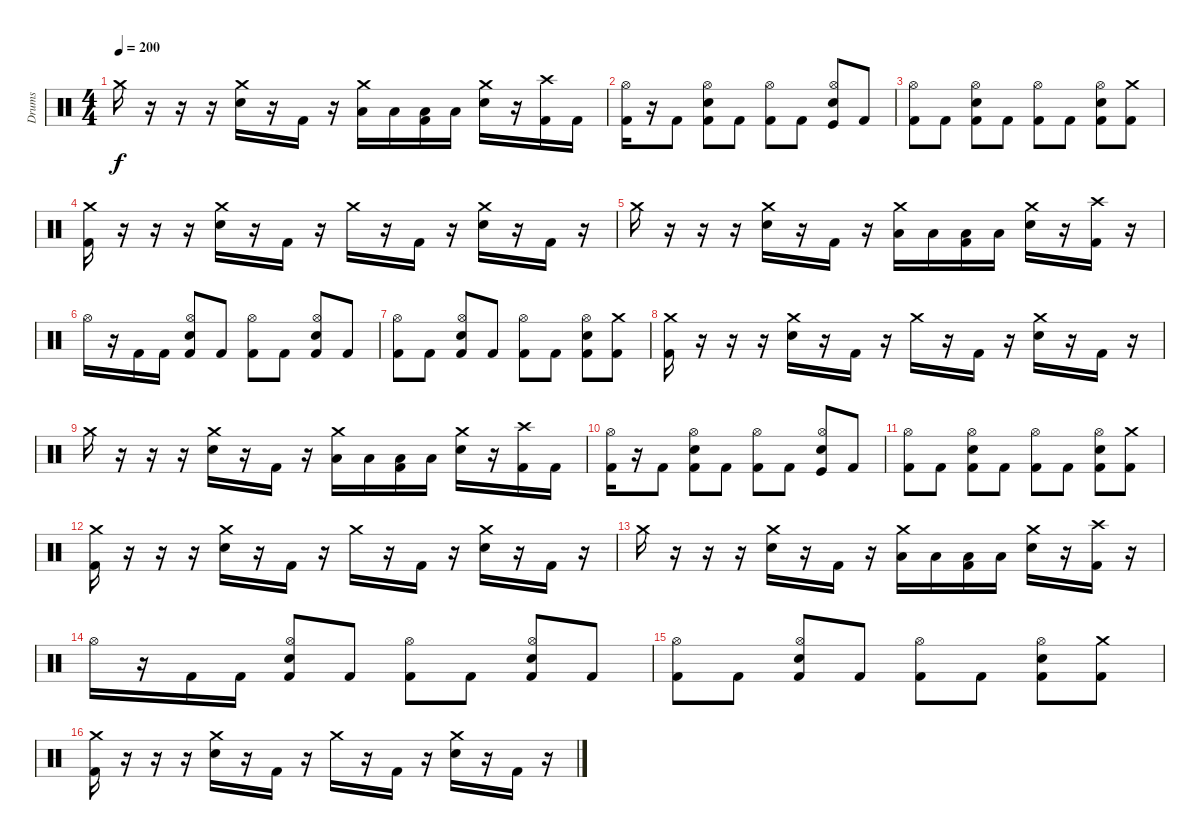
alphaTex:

\track ("Drums" "Drums") {instrument percussion}
\staff {score}
\articulation defaults
\ts (4 4)
\tempo 200
\clef neutral
\ks c "Crash medium (hit)".16{dy f}
r.16 r.16 r.16 ("Crash medium (hit)" "Snare (hit) 2").16 r.16 "Kick (hit) 2".16 r.16 ("Crash medium (hit)" "Low Floor Tom (hit)").16 "Low Floor Tom (hit)".16 ("Low Floor Tom (hit)" "Kick (hit) 2").16 "Low Floor Tom (hit)".16 ("Crash medium (hit)" "Snare (hit) 2").16 r.16 ("Crash high (hit)" "Kick (hit) 2").16 "Kick (hit) 2".16 |
("Hi-Hat (open)" "Kick (hit) 2").16 r.16 "Kick (hit) 2".8 ("Hi-Hat (open)" "Snare (hit) 2" "Kick (hit) 2").8 "Kick (hit) 2".8 ("Hi-Hat (open)" "Kick (hit) 2").8 "Kick (hit) 2".8 ("Hi-Hat (open)" "Snare (hit) 2" "Kick (hit)").8 "Kick (hit) 2".8 |
("Hi-Hat (open)" "Kick (hit) 2").8 "Kick (hit) 2".8 ("Hi-Hat (open)" "Snare (hit) 2" "Kick (hit) 2").8 "Kick (hit) 2".8 ("Hi-Hat (open)" "Kick (hit) 2").8 "Kick (hit) 2".8 ("Hi-Hat (open)" "Snare (hit) 2" "Kick (hit) 2").8 ("Crash medium (hit)" "Kick (hit) 2").8 |
("Crash medium (hit)" "Kick (hit) 2").16 r.16 r.16 r.16 ("Crash medium (hit)" "Electric Snare (hit)").16 r.16 "Kick (hit) 2".16 r.16 "Crash medium (hit)".16 r.16 "Kick (hit) 2".16 r.16 ("Crash medium (hit)" "Electric Snare (hit)").16 r.16 "Kick (hit) 2".16 r.16 |
"Crash medium (hit)".16 r.16 r.16 r.16 ("Crash medium (hit)" "Electric Snare (hit)").16 r.16 "Kick (hit) 2".16 r.16 ("Crash medium (hit)" "Low Floor Tom (hit)").16 "Low Floor Tom (hit)".16 ("Low Floor Tom (hit)" "Kick (hit) 2").16 "Low Floor Tom (hit)".16 ("Crash medium (hit)" "Electric Snare (hit)").16 r.16 ("Crash high (hit)" "Kick (hit) 2").16 r.16 |
"Hi-Hat (open)".16 r.16 "Kick (hit) 2".16 "Kick (hit) 2".16 ("Hi-Hat (open)" "Electric Snare (hit)" "Kick (hit) 2").8 "Kick (hit) 2".8 ("Hi-Hat (open)" "Kick (hit) 2").8 "Kick (hit) 2".8 ("Hi-Hat (open)" "Electric Snare (hit)" "Kick (hit) 2").8 "Kick (hit) 2".8 |
("Hi-Hat (open)" "Kick (hit) 2").8 "Kick (hit) 2".8 ("Hi-Hat (open)" "Electric Snare (hit)" "Kick (hit) 2").8 "Kick (hit) 2".8 ("Hi-Hat (open)" "Kick (hit) 2").8 "Kick (hit) 2".8 ("Hi-Hat (open)" "Electric Snare (hit)" "Kick (hit) 2").8 ("Crash medium (hit)" "Kick (hit) 2").8 |
("Crash medium (hit)" "Kick (hit) 2").16 r.16 r.16 r.16 ("Crash medium (hit)" "Snare (hit) 2").16 r.16 "Kick (hit) 2".16 r.16 "Crash medium (hit)".16 r.16 "Kick (hit) 2".16 r.16 ("Crash medium (hit)" "Snare (hit) 2").16 r.16 "Kick (hit) 2".16 r.16 |
"Crash medium (hit)".16 r.16 r.16 r.16 ("Crash medium (hit)" "Snare (hit) 2").16 r.16 "Kick (hit) 2".16 r.16 ("Crash medium (hit)" "Low Floor Tom (hit)").16 "Low Floor Tom (hit)".16 ("Low Floor Tom (hit)" "Kick (hit) 2").16 "Low Floor Tom (hit)".16 ("Crash medium (hit)" "Snare (hit) 2").16 r.16 ("Crash high (hit)" "Kick (hit) 2").16 "Kick (hit) 2".16 |
("Hi-Hat (open)" "Kick (hit) 2").16 r.16 "Kick (hit) 2".8 ("Hi-Hat (open)" "Snare (hit) 2" "Kick (hit) 2").8 "Kick (hit) 2".8 ("Hi-Hat (open)" "Kick (hit) 2").8 "Kick (hit) 2".8 ("Hi-Hat (open)" "Snare (hit) 2" "Kick (hit)").8 "Kick (hit) 2".8 |
("Hi-Hat (open)" "Kick (hit) 2").8 "Kick (hit) 2".8 ("Hi-Hat (open)" "Snare (hit) 2" "Kick (hit) 2").8 "Kick (hit) 2".8 ("Hi-Hat (open)" "Kick (hit) 2").8 "Kick (hit) 2".8 ("Hi-Hat (open)" "Snare (hit) 2" "Kick (hit) 2").8 ("Crash medium (hit)" "Kick (hit) 2").8 |
("Crash medium (hit)" "Kick (hit) 2").16 r.16 r.16 r.16 ("Crash medium (hit)" "Electric Snare (hit)").16 r.16 "Kick (hit) 2".16 r.16 "Crash medium (hit)".16 r.16 "Kick (hit) 2".16 r.16 ("Crash medium (hit)" "Electric Snare (hit)").16 r.16 "Kick (hit) 2".16 r.16 |
"Crash medium (hit)".16 r.16 r.16 r.16 ("Crash medium (hit)" "Electric Snare (hit)").16 r.16 "Kick (hit) 2".16 r.16 ("Crash medium (hit)" "Low Floor Tom (hit)").16 "Low Floor Tom (hit)".16 ("Low Floor Tom (hit)" "Kick (hit) 2").16 "Low Floor Tom (hit)".16 ("Crash medium (hit)" "Electric Snare (hit)").16 r.16 ("Crash high (hit)" "Kick (hit) 2").16 r.16 |
"Hi-Hat (open)".16 r.16 "Kick (hit) 2".16 "Kick (hit) 2".16 ("Hi-Hat (open)" "Electric Snare (hit)" "Kick (hit) 2").8 "Kick (hit) 2".8 ("Hi-Hat (open)" "Kick (hit) 2").8 "Kick (hit) 2".8 ("Hi-Hat (open)" "Electric Snare (hit)" "Kick (hit) 2").8 "Kick (hit) 2".8 |
("Hi-Hat (open)" "Kick (hit) 2").8 "Kick (hit) 2".8 ("Hi-Hat (open)" "Electric Snare (hit)" "Kick (hit) 2").8 "Kick (hit) 2".8 ("Hi-Hat (open)" "Kick (hit) 2").8 "Kick (hit) 2".8 ("Hi-Hat (open)" "Electric Snare (hit)" "Kick (hit) 2").8 ("Crash medium (hit)" "Kick (hit) 2").8 |
("Crash medium (hit)" "Kick (hit) 2").16 r.16 r.16 r.16 ("Crash medium (hit)" "Snare (hit) 2").16 r.16 "Kick (hit) 2".16 r.16 "Crash medium (hit)".16 r.16 "Kick (hit) 2".16 r.16 ("Crash medium (hit)" "Snare (hit) 2").16 r.16 "Kick (hit) 2".16 r.16
